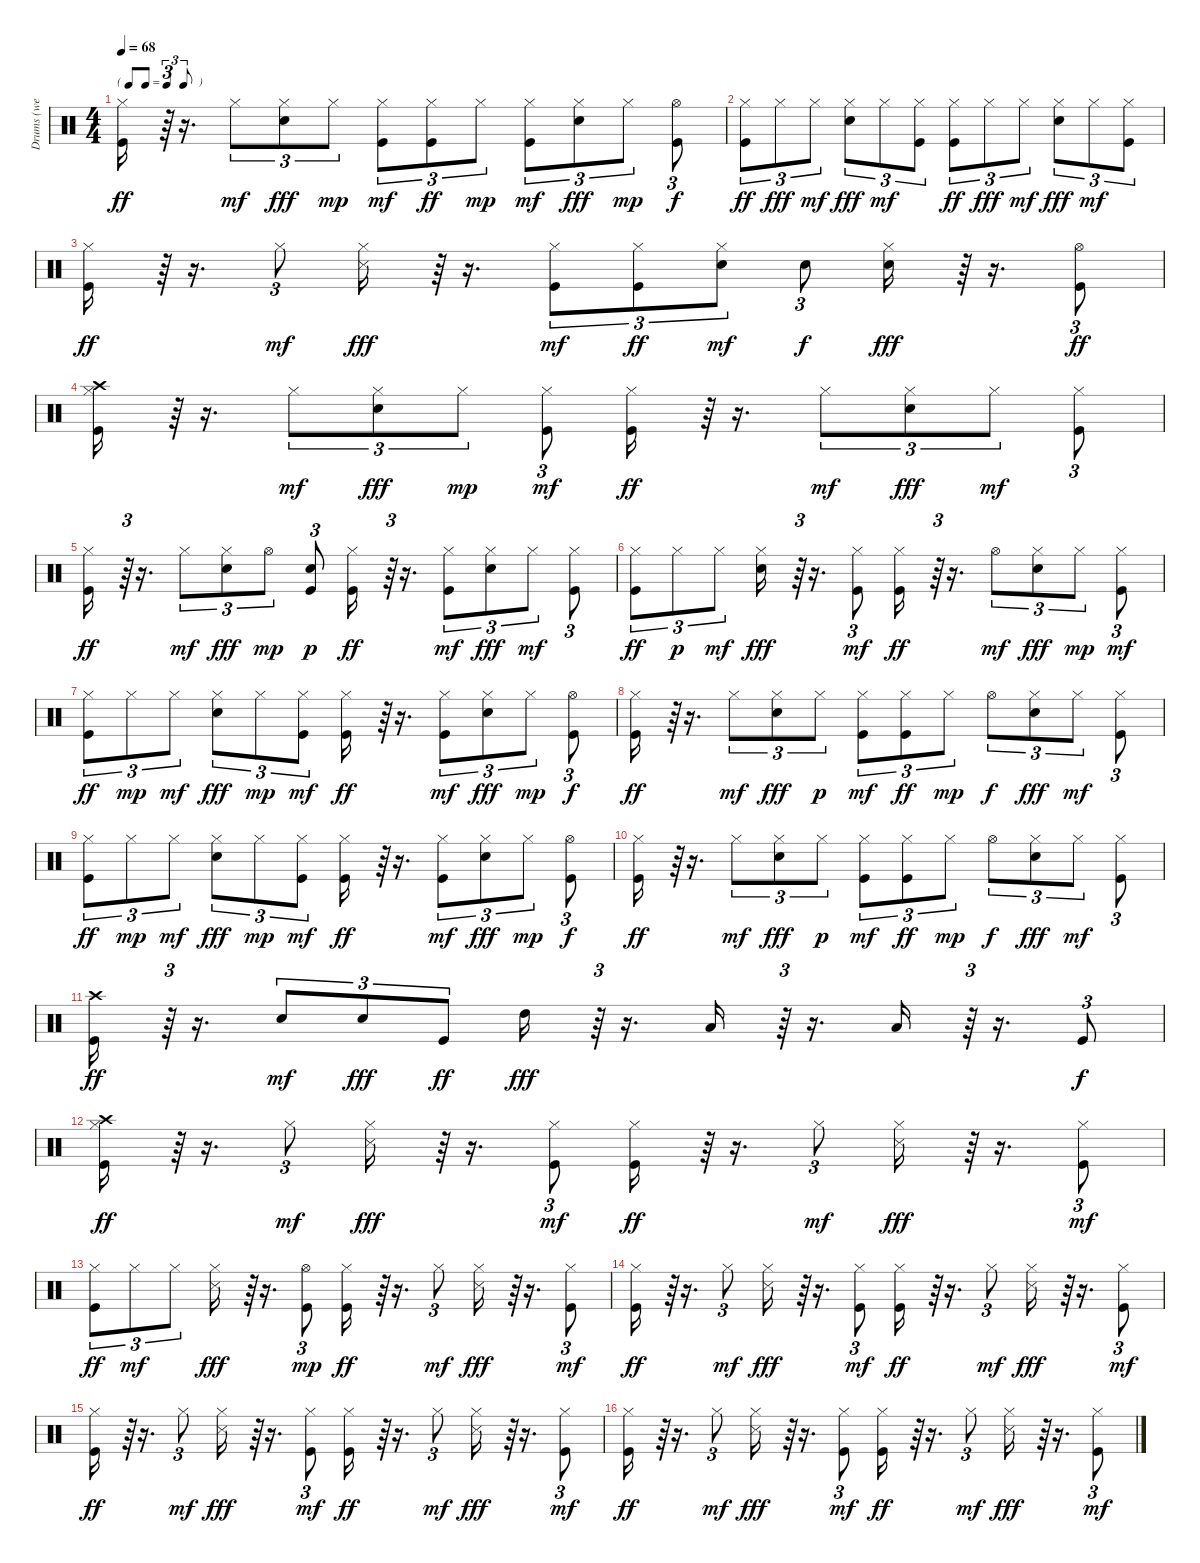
\track (" Drums (well Duh!)" " Drums (we") {instrument percussion}
\staff {score}
\articulation defaults
\ts (4 4)
\tf triplet8th
\tempo 68
\clef neutral
\ks c
("Kick (hit)" "Hi-Hat (closed)").16{dy ff} r.64{tu (3 2)} r.16{d} "Hi-Hat (closed)".8{tu (3 2) dy mf} ("Snare (hit) 2" "Hi-Hat (closed)").8{tu (3 2) dy fff} "Hi-Hat (closed)".8{tu (3 2) dy mp} ("Kick (hit)" "Hi-Hat (closed)").8{tu (3 2) dy mf} ("Kick (hit)" "Hi-Hat (closed)").8{tu (3 2) dy ff} "Hi-Hat (closed)".8{tu (3 2) dy mp} ("Kick (hit)" "Hi-Hat (closed)").8{tu (3 2) dy mf} ("Snare (hit) 2" "Hi-Hat (closed)").8{tu (3 2) dy fff} "Hi-Hat (closed)".8{tu (3 2) dy mp} ("Kick (hit)" "Hi-Hat (open)").8{tu (3 2) dy f} |
("Kick (hit)" "Hi-Hat (closed)").8{tu (3 2) dy ff} "Hi-Hat (closed)".8{tu (3 2) dy fff} "Hi-Hat (closed)".8{tu (3 2) dy mf} ("Snare (hit) 2" "Hi-Hat (closed)").8{tu (3 2) dy fff} "Hi-Hat (closed)".8{tu (3 2) dy mf} ("Kick (hit)" "Hi-Hat (closed)").8{tu (3 2)} ("Kick (hit)" "Hi-Hat (closed)").8{tu (3 2) dy ff} "Hi-Hat (closed)".8{tu (3 2) dy fff} "Hi-Hat (closed)".8{tu (3 2) dy mf} ("Snare (hit) 2" "Hi-Hat (closed)").8{tu (3 2) dy fff} "Hi-Hat (closed)".8{tu (3 2) dy mf} ("Kick (hit)" "Hi-Hat (closed)").8{tu (3 2)} |
("Kick (hit)" "Hi-Hat (closed)").16{dy ff} r.64{tu (3 2)} r.16{d} "Hi-Hat (closed)".8{tu (3 2) dy mf} ("Hi-Hat (closed)" "Snare (side stick) 3").16{dy fff} r.64{tu (3 2)} r.16{d} ("Kick (hit)" "Hi-Hat (closed)").8{tu (3 2) dy mf} ("Kick (hit)" "Hi-Hat (closed)").8{tu (3 2) dy ff} ("Snare (hit) 2" "Hi-Hat (closed)").8{tu (3 2) dy mf} "Snare (hit) 2".8{tu (3 2) dy f} ("Snare (hit) 2" "Hi-Hat (closed)").16{dy fff} r.64{tu (3 2)} r.16{d} ("Kick (hit)" "Hi-Hat (open)").8{tu (3 2) dy ff} |
("Kick (hit)" "Hi-Hat (closed)" "Crash high (hit)").16 r.64{tu (3 2)} r.16{d} "Hi-Hat (closed)".8{tu (3 2) dy mf} ("Snare (hit) 2" "Hi-Hat (closed)").8{tu (3 2) dy fff} "Hi-Hat (closed)".8{tu (3 2) dy mp} ("Kick (hit)" "Hi-Hat (closed)").8{tu (3 2) dy mf} ("Kick (hit)" "Hi-Hat (closed)").16{dy ff} r.64{tu (3 2)} r.16{d} "Hi-Hat (closed)".8{tu (3 2) dy mf} ("Snare (hit) 2" "Hi-Hat (closed)").8{tu (3 2) dy fff} "Hi-Hat (closed)".8{tu (3 2) dy mf} ("Kick (hit)" "Hi-Hat (closed)").8{tu (3 2)} |
("Kick (hit)" "Hi-Hat (closed)").16{dy ff} r.64{tu (3 2)} r.16{d} "Hi-Hat (closed)".8{tu (3 2) dy mf} ("Snare (hit) 2" "Hi-Hat (closed)").8{tu (3 2) dy fff} "Hi-Hat (open)".8{tu (3 2) dy mp} ("Kick (hit)" "Snare (hit) 2").8{tu (3 2) dy p} ("Kick (hit)" "Hi-Hat (closed)").16{dy ff} r.64{tu (3 2)} r.16{d} ("Kick (hit)" "Hi-Hat (closed)").8{tu (3 2) dy mf} ("Snare (hit) 2" "Hi-Hat (closed)").8{tu (3 2) dy fff} "Hi-Hat (closed)".8{tu (3 2) dy mf} ("Kick (hit)" "Hi-Hat (closed)").8{tu (3 2)} |
("Kick (hit)" "Hi-Hat (closed)").8{tu (3 2) dy ff} "Hi-Hat (closed)".8{tu (3 2) dy p} "Hi-Hat (closed)".8{tu (3 2) dy mf} ("Snare (hit) 2" "Hi-Hat (closed)").16{dy fff} r.64{tu (3 2)} r.16{d} ("Kick (hit)" "Hi-Hat (closed)").8{tu (3 2) dy mf} ("Kick (hit)" "Hi-Hat (closed)").16{dy ff} r.64{tu (3 2)} r.16{d} "Hi-Hat (open)".8{tu (3 2) dy mf} ("Snare (hit) 2" "Hi-Hat (closed)").8{tu (3 2) dy fff} "Hi-Hat (closed)".8{tu (3 2) dy mp} ("Kick (hit)" "Hi-Hat (closed)").8{tu (3 2) dy mf} |
("Kick (hit)" "Hi-Hat (closed)").8{tu (3 2) dy ff} "Hi-Hat (closed)".8{tu (3 2) dy mp} "Hi-Hat (closed)".8{tu (3 2) dy mf} ("Snare (hit) 2" "Hi-Hat (closed)").8{tu (3 2) dy fff} "Hi-Hat (closed)".8{tu (3 2) dy mp} ("Kick (hit)" "Hi-Hat (closed)").8{tu (3 2) dy mf} ("Kick (hit)" "Hi-Hat (closed)").16{dy ff} r.64{tu (3 2)} r.16{d} ("Kick (hit)" "Hi-Hat (closed)").8{tu (3 2) dy mf} ("Snare (hit) 2" "Hi-Hat (closed)").8{tu (3 2) dy fff} "Hi-Hat (closed)".8{tu (3 2) dy mp} ("Kick (hit)" "Hi-Hat (open)").8{tu (3 2) dy f} |
("Kick (hit)" "Hi-Hat (closed)").16{dy ff} r.64{tu (3 2)} r.16{d} "Hi-Hat (closed)".8{tu (3 2) dy mf} ("Snare (hit) 2" "Hi-Hat (closed)").8{tu (3 2) dy fff} "Hi-Hat (closed)".8{tu (3 2) dy p} ("Kick (hit)" "Hi-Hat (closed)").8{tu (3 2) dy mf} ("Kick (hit)" "Hi-Hat (closed)").8{tu (3 2) dy ff} "Hi-Hat (closed)".8{tu (3 2) dy mp} "Hi-Hat (open)".8{tu (3 2) dy f} ("Snare (hit) 2" "Hi-Hat (closed)").8{tu (3 2) dy fff} "Hi-Hat (closed)".8{tu (3 2) dy mf} ("Kick (hit)" "Hi-Hat (closed)").8{tu (3 2)} |
("Kick (hit)" "Hi-Hat (closed)").8{tu (3 2) dy ff} "Hi-Hat (closed)".8{tu (3 2) dy mp} "Hi-Hat (closed)".8{tu (3 2) dy mf} ("Snare (hit) 2" "Hi-Hat (closed)").8{tu (3 2) dy fff} "Hi-Hat (closed)".8{tu (3 2) dy mp} ("Kick (hit)" "Hi-Hat (closed)").8{tu (3 2) dy mf} ("Kick (hit)" "Hi-Hat (closed)").16{dy ff} r.64{tu (3 2)} r.16{d} ("Kick (hit)" "Hi-Hat (closed)").8{tu (3 2) dy mf} ("Snare (hit) 2" "Hi-Hat (closed)").8{tu (3 2) dy fff} "Hi-Hat (closed)".8{tu (3 2) dy mp} ("Kick (hit)" "Hi-Hat (open)").8{tu (3 2) dy f} |
("Kick (hit)" "Hi-Hat (closed)").16{dy ff} r.64{tu (3 2)} r.16{d} "Hi-Hat (closed)".8{tu (3 2) dy mf} ("Snare (hit) 2" "Hi-Hat (closed)").8{tu (3 2) dy fff} "Hi-Hat (closed)".8{tu (3 2) dy p} ("Kick (hit)" "Hi-Hat (closed)").8{tu (3 2) dy mf} ("Kick (hit)" "Hi-Hat (closed)").8{tu (3 2) dy ff} "Hi-Hat (closed)".8{tu (3 2) dy mp} "Hi-Hat (open)".8{tu (3 2) dy f} ("Snare (hit) 2" "Hi-Hat (closed)").8{tu (3 2) dy fff} "Hi-Hat (closed)".8{tu (3 2) dy mf} ("Kick (hit)" "Hi-Hat (closed)").8{tu (3 2)} |
("Kick (hit)" "Crash high (hit)").16{dy ff} r.64{tu (3 2)} r.16{d} "Snare (hit) 2".8{tu (3 2) dy mf} "Snare (hit) 2".8{tu (3 2) dy fff} "Kick (hit)".8{tu (3 2) dy ff} "High Tom (hit)".16{dy fff} r.64{tu (3 2)} r.16{d} "Low Tom (hit)".16 r.64{tu (3 2)} r.16{d} "Low Floor Tom (hit)".16 r.64{tu (3 2)} r.16{d} "Kick (hit)".8{tu (3 2) dy f} |
("Kick (hit)" "Hi-Hat (closed)" "Crash high (hit)").16{dy ff} r.64{tu (3 2)} r.16{d} "Hi-Hat (closed)".8{tu (3 2) dy mf} ("Hi-Hat (closed)" "Snare (side stick) 3").16{dy fff} r.64{tu (3 2)} r.16{d} ("Kick (hit)" "Hi-Hat (closed)").8{tu (3 2) dy mf} ("Kick (hit)" "Hi-Hat (closed)").16{dy ff} r.64{tu (3 2)} r.16{d} "Hi-Hat (closed)".8{tu (3 2) dy mf} ("Hi-Hat (closed)" "Snare (side stick) 3").16{dy fff} r.64{tu (3 2)} r.16{d} ("Kick (hit)" "Hi-Hat (closed)").8{tu (3 2) dy mf} |
("Kick (hit)" "Hi-Hat (closed)").8{tu (3 2) dy ff} "Hi-Hat (closed)".8{tu (3 2) dy mf} "Hi-Hat (closed)".8{tu (3 2)} ("Hi-Hat (closed)" "Snare (side stick) 3").16{dy fff} r.64{tu (3 2)} r.16{d} ("Kick (hit)" "Hi-Hat (open)").8{tu (3 2) dy mp} ("Kick (hit)" "Hi-Hat (closed)").16{dy ff} r.64{tu (3 2)} r.16{d} "Hi-Hat (closed)".8{tu (3 2) dy mf} ("Hi-Hat (closed)" "Snare (side stick) 3").16{dy fff} r.64{tu (3 2)} r.16{d} ("Kick (hit)" "Hi-Hat (closed)").8{tu (3 2) dy mf} |
("Kick (hit)" "Hi-Hat (closed)").16{dy ff} r.64{tu (3 2)} r.16{d} "Hi-Hat (closed)".8{tu (3 2) dy mf} ("Hi-Hat (closed)" "Snare (side stick) 3").16{dy fff} r.64{tu (3 2)} r.16{d} ("Kick (hit)" "Hi-Hat (closed)").8{tu (3 2) dy mf} ("Kick (hit)" "Hi-Hat (closed)").16{dy ff} r.64{tu (3 2)} r.16{d} "Hi-Hat (closed)".8{tu (3 2) dy mf} ("Hi-Hat (closed)" "Snare (side stick) 3").16{dy fff} r.64{tu (3 2)} r.16{d} ("Kick (hit)" "Hi-Hat (closed)").8{tu (3 2) dy mf} |
("Kick (hit)" "Hi-Hat (closed)").16{dy ff} r.64{tu (3 2)} r.16{d} "Hi-Hat (closed)".8{tu (3 2) dy mf} ("Hi-Hat (closed)" "Snare (side stick) 3").16{dy fff} r.64{tu (3 2)} r.16{d} ("Kick (hit)" "Hi-Hat (closed)").8{tu (3 2) dy mf} ("Kick (hit)" "Hi-Hat (closed)").16{dy ff} r.64{tu (3 2)} r.16{d} "Hi-Hat (closed)".8{tu (3 2) dy mf} ("Hi-Hat (closed)" "Snare (side stick) 3").16{dy fff} r.64{tu (3 2)} r.16{d} ("Kick (hit)" "Hi-Hat (closed)").8{tu (3 2) dy mf} |
("Kick (hit)" "Hi-Hat (closed)").16{dy ff} r.64{tu (3 2)} r.16{d} "Hi-Hat (closed)".8{tu (3 2) dy mf} ("Hi-Hat (closed)" "Snare (side stick) 3").16{dy fff} r.64{tu (3 2)} r.16{d} ("Kick (hit)" "Hi-Hat (closed)").8{tu (3 2) dy mf} ("Kick (hit)" "Hi-Hat (closed)").16{dy ff} r.64{tu (3 2)} r.16{d} "Hi-Hat (closed)".8{tu (3 2) dy mf} ("Hi-Hat (closed)" "Snare (side stick) 3").16{dy fff} r.64{tu (3 2)} r.16{d} ("Kick (hit)" "Hi-Hat (closed)").8{tu (3 2) dy mf}
